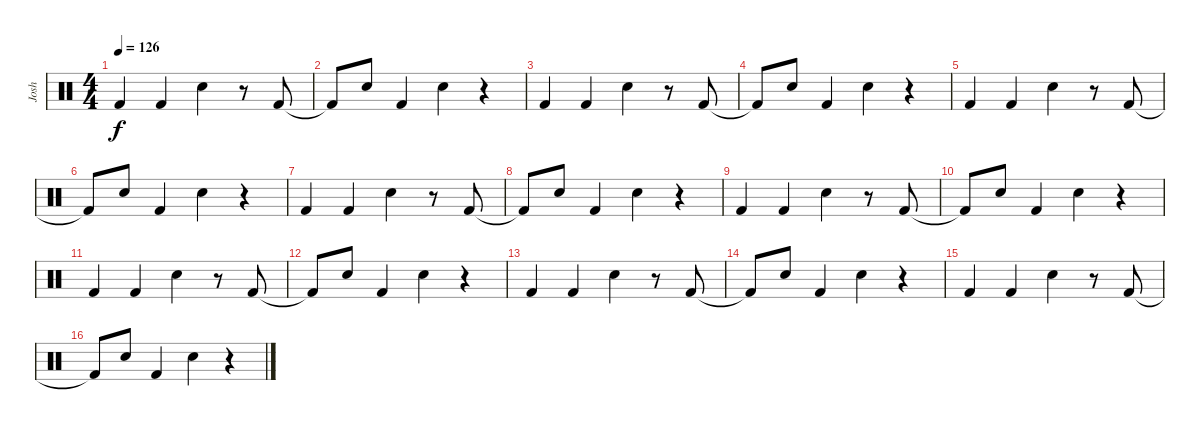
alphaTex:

\track ("Josh" "Josh") {instrument percussion}
\staff {score}
\articulation defaults
\ts (4 4)
\tempo 126
\clef neutral
\ks c "Kick (hit) 2".4{dy f} "Kick (hit) 2".4 "Snare (hit) 2".4
r.8 "Kick (hit) 2".8 |
"Kick (hit) 2"{t}.8 "Snare (hit) 2".8 "Kick (hit) 2".4 "Snare (hit) 2".4 r.4 |
"Kick (hit) 2".4 "Kick (hit) 2".4 "Snare (hit) 2".4 r.8 "Kick (hit) 2".8 |
"Kick (hit) 2"{t}.8 "Snare (hit) 2".8 "Kick (hit) 2".4 "Snare (hit) 2".4 r.4 |
"Kick (hit) 2".4 "Kick (hit) 2".4 "Snare (hit) 2".4 r.8 "Kick (hit) 2".8 |
"Kick (hit) 2"{t}.8 "Snare (hit) 2".8 "Kick (hit) 2".4 "Snare (hit) 2".4 r.4 |
"Kick (hit) 2".4 "Kick (hit) 2".4 "Snare (hit) 2".4 r.8 "Kick (hit) 2".8 |
"Kick (hit) 2"{t}.8 "Snare (hit) 2".8 "Kick (hit) 2".4 "Snare (hit) 2".4 r.4 |
"Kick (hit) 2".4 "Kick (hit) 2".4 "Snare (hit) 2".4 r.8 "Kick (hit) 2".8 |
"Kick (hit) 2"{t}.8 "Snare (hit) 2".8 "Kick (hit) 2".4 "Snare (hit) 2".4 r.4 |
"Kick (hit) 2".4 "Kick (hit) 2".4 "Snare (hit) 2".4 r.8 "Kick (hit) 2".8 |
"Kick (hit) 2"{t}.8 "Snare (hit) 2".8 "Kick (hit) 2".4 "Snare (hit) 2".4 r.4 |
"Kick (hit) 2".4 "Kick (hit) 2".4 "Snare (hit) 2".4 r.8 "Kick (hit) 2".8 |
"Kick (hit) 2"{t}.8 "Snare (hit) 2".8 "Kick (hit) 2".4 "Snare (hit) 2".4 r.4 |
"Kick (hit) 2".4 "Kick (hit) 2".4 "Snare (hit) 2".4 r.8 "Kick (hit) 2".8 |
"Kick (hit) 2"{t}.8 "Snare (hit) 2".8 "Kick (hit) 2".4 "Snare (hit) 2".4 r.4
